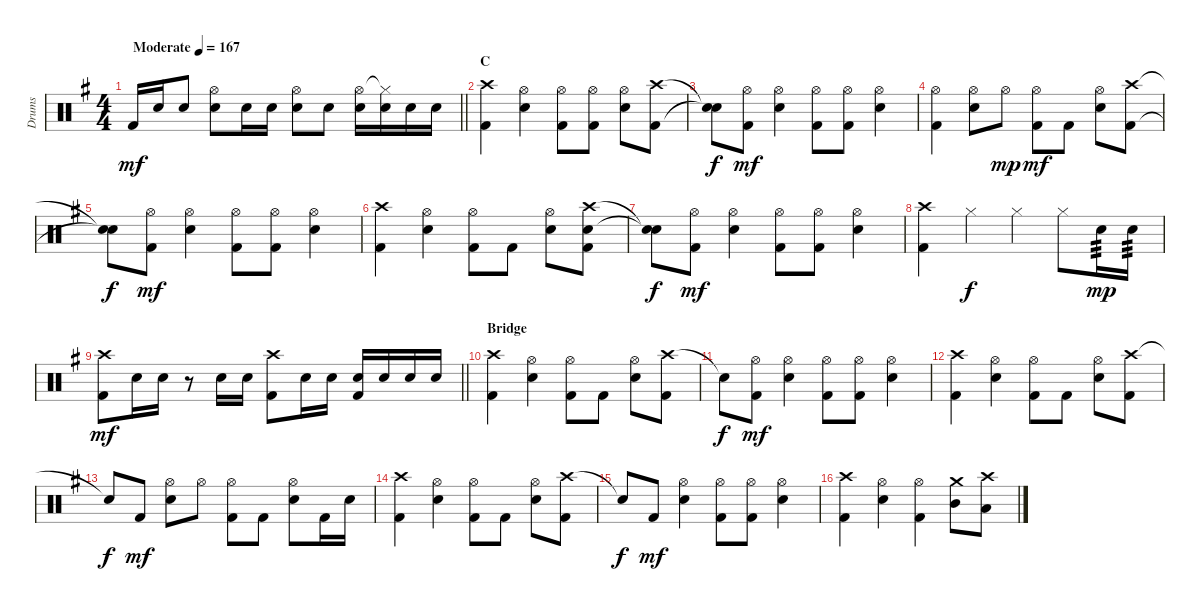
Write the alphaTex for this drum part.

\track ("Drums" "Drums") {instrument percussion}
\staff {score}
\articulation defaults
\ts (4 4)
\tempo (167 "Moderate")
\clef neutral
\barLineRight lightlight
\ks g "Kick (hit) 2".16{dy mf} "Electric Snare (hit)".16 "Electric Snare (hit)".8
("Hi-Hat (open)" "Electric Snare (hit)").8 "Electric Snare (hit)".16 "Electric Snare (hit)".16 ("Hi-Hat (open)" "Electric Snare (hit)").8 "Electric Snare (hit)".8 ("Hi-Hat (open)" "Electric Snare (hit)").16 ("Hi-Hat (closed)"{t} "Electric Snare (hit)").16 "Electric Snare (hit)".16 "Electric Snare (hit)".16 |
\section ("" "C")
("Crash high (hit)" "Kick (hit) 2").4 ("Hi-Hat (open)" "Electric Snare (hit)").4 ("Hi-Hat (open)" "Kick (hit) 2").8 ("Hi-Hat (open)" "Kick (hit) 2").8 ("Hi-Hat (open)" "Electric Snare (hit)").8 ("Crash high (hit)" "Kick (hit) 2").8 |
("Snare (hit)"{t} "Snare (hit)"{t}).8{dy f} ("Hi-Hat (open)" "Kick (hit) 2").8{dy mf} ("Hi-Hat (open)" "Electric Snare (hit)").4 ("Hi-Hat (open)" "Kick (hit) 2").8 ("Hi-Hat (open)" "Kick (hit) 2").8 ("Hi-Hat (open)" "Electric Snare (hit)").4 |
("Hi-Hat (open)" "Kick (hit) 2").4 ("Hi-Hat (open)" "Electric Snare (hit)").8 "Hi-Hat (open)".8{dy mp} ("Hi-Hat (open)" "Kick (hit) 2").8{dy mf} "Kick (hit) 2".8 ("Hi-Hat (open)" "Electric Snare (hit)").8 ("Crash high (hit)" "Kick (hit) 2").8 |
("Snare (hit)"{t} "Snare (hit)"{t}).8{dy f} ("Hi-Hat (open)" "Kick (hit) 2").8{dy mf} ("Hi-Hat (open)" "Electric Snare (hit)").4 ("Hi-Hat (open)" "Kick (hit) 2").8 ("Hi-Hat (open)" "Kick (hit) 2").8 ("Hi-Hat (open)" "Electric Snare (hit)").4 |
("Crash high (hit)" "Kick (hit) 2").4 ("Hi-Hat (open)" "Electric Snare (hit)").4 ("Hi-Hat (open)" "Kick (hit) 2").8 "Kick (hit) 2".8 ("Hi-Hat (open)" "Electric Snare (hit)").8 ("Crash high (hit)" "Electric Snare (hit)" "Kick (hit) 2").8 |
("Snare (hit)"{t} "Snare (hit)"{t}).8{dy f} ("Hi-Hat (open)" "Kick (hit) 2").8{dy mf} ("Hi-Hat (open)" "Electric Snare (hit)").4 ("Hi-Hat (open)" "Kick (hit) 2").8 ("Hi-Hat (open)" "Kick (hit) 2").8 ("Hi-Hat (open)" "Electric Snare (hit)").4 |
("Crash high (hit)" "Kick (hit) 2").4 "Hi-Hat (closed)".4{dy f} "Hi-Hat (closed)".4 "Hi-Hat (closed)".8 "Electric Snare (hit)".16{tp 3 dy mp} "Electric Snare (hit)".16{tp 3} |
\barLineRight lightlight
("Crash high (hit)" "Kick (hit) 2").8{dy mf} "Electric Snare (hit)".16 "Electric Snare (hit)".16 r.8 "Electric Snare (hit)".16 "Electric Snare (hit)".16 ("Crash high (hit)" "Kick (hit) 2").8 "Electric Snare (hit)".16 "Electric Snare (hit)".16 ("Electric Snare (hit)" "Kick (hit) 2").16 "Electric Snare (hit)".16 "Electric Snare (hit)".16 "Electric Snare (hit)".16 |
\section ("" "Bridge")
("Crash high (hit)" "Kick (hit) 2").4 ("Hi-Hat (open)" "Electric Snare (hit)").4 ("Hi-Hat (open)" "Kick (hit) 2").8 "Kick (hit) 2".8 ("Hi-Hat (open)" "Electric Snare (hit)").8 ("Crash high (hit)" "Kick (hit) 2").8 |
"Snare (hit)"{t}.8{dy f} ("Hi-Hat (open)" "Kick (hit) 2").8{dy mf} ("Hi-Hat (open)" "Electric Snare (hit)").4 ("Hi-Hat (open)" "Kick (hit) 2").8 ("Hi-Hat (open)" "Kick (hit) 2").8 ("Hi-Hat (open)" "Electric Snare (hit)").4 |
("Crash high (hit)" "Kick (hit) 2").4 ("Hi-Hat (open)" "Electric Snare (hit)").4 ("Hi-Hat (open)" "Kick (hit) 2").8 "Kick (hit) 2".8 ("Hi-Hat (open)" "Electric Snare (hit)").8 ("Crash high (hit)" "Kick (hit) 2").8 |
"Snare (hit)"{t}.8{dy f} "Kick (hit) 2".8{dy mf} ("Hi-Hat (open)" "Electric Snare (hit)").8 "Hi-Hat (open)".8 ("Hi-Hat (open)" "Kick (hit) 2").8 "Kick (hit) 2".8 ("Hi-Hat (open)" "Electric Snare (hit)").8 "Kick (hit) 2".16 "Electric Snare (hit)".16 |
("Crash high (hit)" "Kick (hit) 2").4 ("Hi-Hat (open)" "Electric Snare (hit)").4 ("Hi-Hat (open)" "Kick (hit) 2").8 "Kick (hit) 2".8 ("Hi-Hat (open)" "Electric Snare (hit)").8 ("Crash high (hit)" "Kick (hit) 2").8 |
"Snare (hit)"{t}.8{dy f} "Kick (hit) 2".8{dy mf} ("Hi-Hat (open)" "Electric Snare (hit)").4 ("Hi-Hat (open)" "Kick (hit) 2").8 ("Hi-Hat (open)" "Kick (hit) 2").8 ("Hi-Hat (open)" "Electric Snare (hit)").4 |
("Crash high (hit)" "Kick (hit) 2").4 ("Hi-Hat (open)" "Electric Snare (hit)").4 ("Hi-Hat (open)" "Kick (hit) 2").4 ("Crash medium (hit)" "Mid Tom (hit)").8 ("Crash high (hit)" "Low Tom (hit)").8
